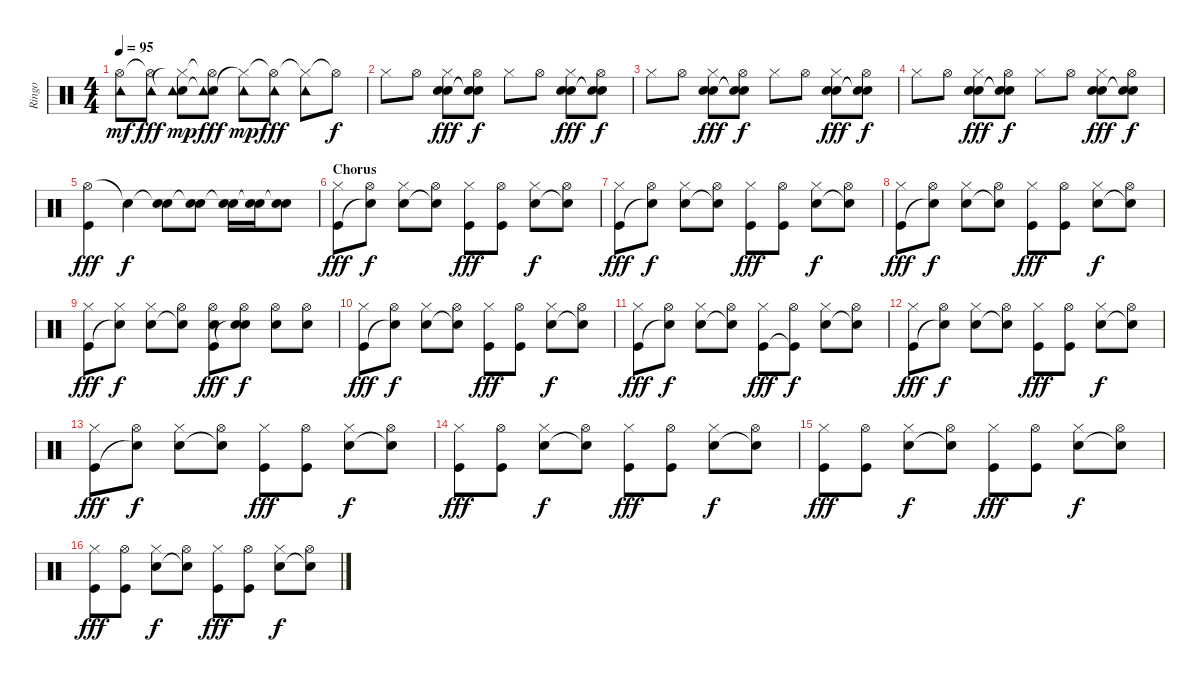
\track ("Ringo" "Ringo") {instrument percussion}
\staff {score}
\articulation defaults
\ts (4 4)
\tempo 95
\clef neutral
\ks c
("Hi-Hat (open)" "Tambourine (hit)").8{dy mf} ("Hi-Hat (open)"{t} "Tambourine (hit)").8{dy fff} ("Hand Clap (hit)" "Hi-Hat (closed)"{t} "Tambourine (hit)").8{dy mp} ("Snare (hit)"{t} "Hi-Hat (open)"{t} "Tambourine (hit)").8{dy fff} ("Hi-Hat (closed)"{t} "Tambourine (hit)").8{dy mp} ("Hi-Hat (open)"{t} "Tambourine (hit)").8{dy fff} ("Hi-Hat (closed)"{t} "Tambourine (hit)").8 "Hi-Hat (open)"{t}.8{dy f} |
"Hi-Hat (closed)".8 "Hi-Hat (open)".8 ("Hand Clap (hit)" "Hi-Hat (closed)" "Snare (hit) 2").8{dy fff} ("Snare (hit)"{t} "Hi-Hat (open)" "Snare (hit)"{t}).8{dy f} "Hi-Hat (closed)".8 "Hi-Hat (open)".8 ("Hand Clap (hit)" "Hi-Hat (closed)" "Snare (hit) 2").8{dy fff} ("Snare (hit)"{t} "Hi-Hat (open)" "Snare (hit)"{t}).8{dy f} |
"Hi-Hat (closed)".8 "Hi-Hat (open)".8 ("Hand Clap (hit)" "Hi-Hat (closed)" "Snare (hit) 2").8{dy fff} ("Snare (hit)"{t} "Hi-Hat (open)" "Snare (hit)"{t}).8{dy f} "Hi-Hat (closed)".8 "Hi-Hat (open)".8 ("Hand Clap (hit)" "Hi-Hat (closed)" "Snare (hit) 2").8{dy fff} ("Snare (hit)"{t} "Hi-Hat (open)" "Snare (hit)"{t}).8{dy f} |
"Hi-Hat (closed)".8 "Hi-Hat (open)".8 ("Hand Clap (hit)" "Hi-Hat (closed)" "Snare (hit) 2").8{dy fff} ("Snare (hit)"{t} "Hi-Hat (open)" "Snare (hit)"{t}).8{dy f} "Hi-Hat (closed)".8 "Hi-Hat (open)".8 ("Hand Clap (hit)" "Hi-Hat (closed)" "Snare (hit) 2").8{dy fff} ("Snare (hit)"{t} "Hi-Hat (open)" "Snare (hit)"{t}).8{dy f} |
("Hi-Hat (open)" "Kick (hit)").4{dy fff} "Snare (hit)"{t}.4{dy f} ("Snare (hit)"{t} "Snare (hit) 2").8 ("Snare (hit)"{t} "Snare (hit) 2").8 ("Snare (hit)"{t} "Snare (hit) 2").16 ("Snare (hit)"{t} "Snare (hit) 2").16 ("Snare (hit)"{t} "Snare (hit) 2").8 |
\section ("" "Chorus")
("Hi-Hat (closed)" "Kick (hit)").8{dy fff} ("Hi-Hat (open)" "Snare (hit)"{t}).8{dy f} ("Hi-Hat (closed)" "Snare (hit) 2").8 ("Hi-Hat (open)" "Snare (hit)"{t}).8 ("Hi-Hat (closed)" "Kick (hit)").8{dy fff} ("Hi-Hat (open)" "Kick (hit)").8 ("Hi-Hat (closed)" "Snare (hit) 2").8{dy f} ("Hi-Hat (open)" "Snare (hit)"{t}).8 |
("Hi-Hat (closed)" "Kick (hit)").8{dy fff} ("Hi-Hat (open)" "Snare (hit)"{t}).8{dy f} ("Hi-Hat (closed)" "Snare (hit) 2").8 ("Hi-Hat (open)" "Snare (hit)"{t}).8 ("Hi-Hat (closed)" "Kick (hit)").8{dy fff} ("Hi-Hat (open)" "Kick (hit)").8 ("Hi-Hat (closed)" "Snare (hit) 2").8{dy f} ("Hi-Hat (open)" "Snare (hit)"{t}).8 |
("Hi-Hat (closed)" "Kick (hit)").8{dy fff} ("Hi-Hat (open)" "Snare (hit)"{t}).8{dy f} ("Hi-Hat (closed)" "Snare (hit) 2").8 ("Hi-Hat (open)" "Snare (hit)"{t}).8 ("Hi-Hat (closed)" "Kick (hit)").8{dy fff} ("Hi-Hat (open)" "Kick (hit)").8 ("Hi-Hat (closed)" "Snare (hit) 2").8{dy f} ("Hi-Hat (open)" "Snare (hit)"{t}).8 |
("Hi-Hat (closed)" "Kick (hit)").8{dy fff} ("Hi-Hat (closed)" "Snare (hit)"{t}).8{dy f} ("Hi-Hat (closed)" "Snare (hit) 2").8 ("Hi-Hat (open)" "Snare (hit)"{t}).8 ("Hi-Hat (open)" "Snare (hit) 2" "Kick (hit)").8{dy fff} ("Hi-Hat (open)" "Snare (hit) 2" "Snare (hit)"{t}).8{dy f} ("Hi-Hat (open)" "Snare (hit) 2").8 ("Hi-Hat (open)" "Snare (hit) 2").8 |
("Hi-Hat (closed)" "Kick (hit)").8{dy fff} ("Hi-Hat (open)" "Snare (hit)"{t}).8{dy f} ("Hi-Hat (closed)" "Snare (hit) 2").8 ("Hi-Hat (open)" "Snare (hit)"{t}).8 ("Hi-Hat (closed)" "Kick (hit)").8{dy fff} ("Hi-Hat (open)" "Kick (hit)").8 ("Hi-Hat (closed)" "Snare (hit) 2").8{dy f} ("Hi-Hat (open)" "Snare (hit)"{t}).8 |
("Hi-Hat (closed)" "Kick (hit)").8{dy fff} ("Hi-Hat (open)" "Snare (hit)"{t}).8{dy f} ("Hi-Hat (closed)" "Snare (hit) 2").8 ("Hi-Hat (open)" "Snare (hit)"{t}).8 ("Hi-Hat (closed)" "Kick (hit)").8{dy fff} ("Hi-Hat (open)" "Kick (hit)"{t}).8{dy f} ("Hi-Hat (closed)" "Snare (hit) 2").8 ("Hi-Hat (open)" "Snare (hit)"{t}).8 |
("Hi-Hat (closed)" "Kick (hit)").8{dy fff} ("Hi-Hat (open)" "Snare (hit)"{t}).8{dy f} ("Hi-Hat (closed)" "Snare (hit) 2").8 ("Hi-Hat (open)" "Snare (hit)"{t}).8 ("Hi-Hat (closed)" "Kick (hit)").8{dy fff} ("Hi-Hat (open)" "Kick (hit)").8 ("Hi-Hat (closed)" "Snare (hit) 2").8{dy f} ("Hi-Hat (open)" "Snare (hit)"{t}).8 |
("Hi-Hat (closed)" "Kick (hit)").8{dy fff} ("Hi-Hat (open)" "Snare (hit)"{t}).8{dy f} ("Hi-Hat (closed)" "Snare (hit) 2").8 ("Hi-Hat (open)" "Snare (hit)"{t}).8 ("Hi-Hat (closed)" "Kick (hit)").8{dy fff} ("Hi-Hat (open)" "Kick (hit)").8 ("Hi-Hat (closed)" "Snare (hit) 2").8{dy f} ("Hi-Hat (open)" "Snare (hit)"{t}).8 |
("Hi-Hat (closed)" "Kick (hit)").8{dy fff} ("Hi-Hat (open)" "Kick (hit)").8 ("Hi-Hat (closed)" "Snare (hit) 2").8{dy f} ("Hi-Hat (open)" "Snare (hit)"{t}).8 ("Hi-Hat (closed)" "Kick (hit)").8{dy fff} ("Hi-Hat (open)" "Kick (hit)").8 ("Hi-Hat (closed)" "Snare (hit) 2").8{dy f} ("Hi-Hat (open)" "Snare (hit)"{t}).8 |
("Hi-Hat (closed)" "Kick (hit)").8{dy fff} ("Hi-Hat (open)" "Kick (hit)").8 ("Hi-Hat (closed)" "Snare (hit) 2").8{dy f} ("Hi-Hat (open)" "Snare (hit)"{t}).8 ("Hi-Hat (closed)" "Kick (hit)").8{dy fff} ("Hi-Hat (open)" "Kick (hit)").8 ("Hi-Hat (closed)" "Snare (hit) 2").8{dy f} ("Hi-Hat (open)" "Snare (hit)"{t}).8 |
("Hi-Hat (closed)" "Kick (hit)").8{dy fff} ("Hi-Hat (open)" "Kick (hit)").8 ("Hi-Hat (closed)" "Snare (hit) 2").8{dy f} ("Hi-Hat (open)" "Snare (hit)"{t}).8 ("Hi-Hat (closed)" "Kick (hit)").8{dy fff} ("Hi-Hat (open)" "Kick (hit)").8 ("Hi-Hat (closed)" "Snare (hit) 2").8{dy f} ("Hi-Hat (open)" "Snare (hit)"{t}).8
